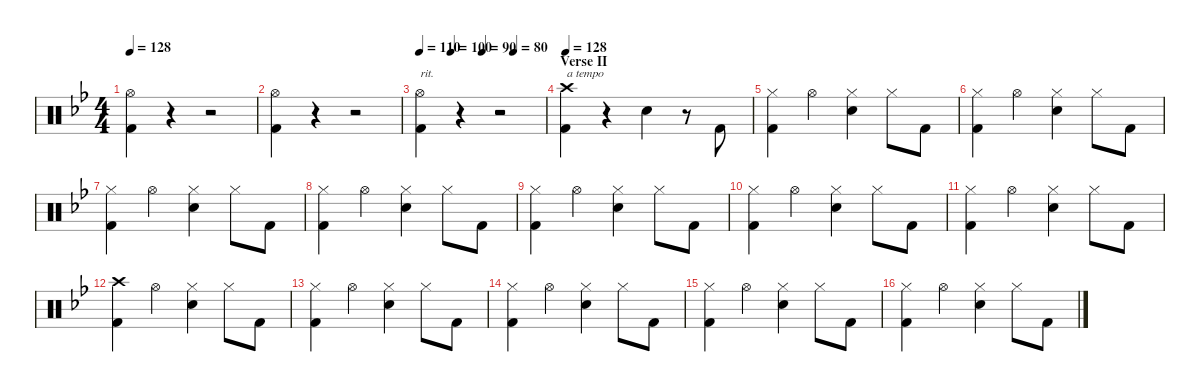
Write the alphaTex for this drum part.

\defaultSystemsLayout 4
\hideDynamics
\bracketExtendMode nobrackets
\singleTrackTrackNamePolicy hidden
\multiTrackTrackNamePolicy hidden
\firstSystemTrackNameMode fullname
\firstSystemTrackNameOrientation horizontal
\otherSystemsTrackNameOrientation horizontal
\track ("Drums" "drm.") {instrument percussion}
\staff {score}
\articulation defaults
\ts (4 4)
\tempo 128
\clef neutral
\ks bb
("Hi-Hat (open)"{acc forcenatural} "Kick (hit) 2"{acc forcenatural}).4{dy f beam Down} r.4{beam Down} r.2{beam Down} |
("Hi-Hat (open)"{acc forcenatural} "Kick (hit) 2"{acc forcenatural}).4{beam Down} r.4{beam Down} r.2{beam Down} |
\tempo 110
\tempo (100 0.25)
\tempo (90 0.5)
\tempo (80 0.75)
("Hi-Hat (open)"{acc forcenatural} "Kick (hit) 2"{acc forcenatural}).4{txt "rit." beam Down} r.4{beam Down} r.2{beam Down} |
\section ("" "Verse II")
\tempo 128
("Crash high (hit)"{acc forcenatural} "Kick (hit) 2"{acc forcenatural}).4{txt "a tempo" beam Down} r.4{beam Down} "Snare (hit) 2"{acc forcenatural}.4{beam Down} r.8{beam Down} "Kick (hit) 2"{acc forcenatural}.8{beam Up} |
("Hi-Hat (closed)"{acc forcenatural} "Kick (hit) 2"{acc forcenatural}).4{beam Down} "Hi-Hat (open)"{acc forcenatural}.4{beam Down} ("Hi-Hat (closed)"{acc forcenatural} "Snare (hit) 2"{acc forcenatural}).4{beam Down} "Hi-Hat (closed)"{acc forcenatural}.8{beam Down} "Kick (hit) 2"{acc forcenatural}.8{beam Down} |
("Hi-Hat (closed)"{acc forcenatural} "Kick (hit) 2"{acc forcenatural}).4{beam Down} "Hi-Hat (open)"{acc forcenatural}.4{beam Down} ("Hi-Hat (closed)"{acc forcenatural} "Snare (hit) 2"{acc forcenatural}).4{beam Down} "Hi-Hat (closed)"{acc forcenatural}.8{beam Down} "Kick (hit) 2"{acc forcenatural}.8{beam Down} |
("Hi-Hat (closed)"{acc forcenatural} "Kick (hit) 2"{acc forcenatural}).4{beam Down} "Hi-Hat (open)"{acc forcenatural}.4{beam Down} ("Hi-Hat (closed)"{acc forcenatural} "Snare (hit) 2"{acc forcenatural}).4{beam Down} "Hi-Hat (closed)"{acc forcenatural}.8{beam Down} "Kick (hit) 2"{acc forcenatural}.8{beam Down} |
("Hi-Hat (closed)"{acc forcenatural} "Kick (hit) 2"{acc forcenatural}).4{beam Down} "Hi-Hat (open)"{acc forcenatural}.4{beam Down} ("Hi-Hat (closed)"{acc forcenatural} "Snare (hit) 2"{acc forcenatural}).4{beam Down} "Hi-Hat (closed)"{acc forcenatural}.8{beam Down} "Kick (hit) 2"{acc forcenatural}.8{beam Down} |
("Hi-Hat (closed)"{acc forcenatural} "Kick (hit) 2"{acc forcenatural}).4{beam Down} "Hi-Hat (open)"{acc forcenatural}.4{beam Down} ("Hi-Hat (closed)"{acc forcenatural} "Snare (hit) 2"{acc forcenatural}).4{beam Down} "Hi-Hat (closed)"{acc forcenatural}.8{beam Down} "Kick (hit) 2"{acc forcenatural}.8{beam Down} |
("Hi-Hat (closed)"{acc forcenatural} "Kick (hit) 2"{acc forcenatural}).4{beam Down} "Hi-Hat (open)"{acc forcenatural}.4{beam Down} ("Hi-Hat (closed)"{acc forcenatural} "Snare (hit) 2"{acc forcenatural}).4{beam Down} "Hi-Hat (closed)"{acc forcenatural}.8{beam Down} "Kick (hit) 2"{acc forcenatural}.8{beam Down} |
("Hi-Hat (closed)"{acc forcenatural} "Kick (hit) 2"{acc forcenatural}).4{beam Down} "Hi-Hat (open)"{acc forcenatural}.4{beam Down} ("Hi-Hat (closed)"{acc forcenatural} "Snare (hit) 2"{acc forcenatural}).4{beam Down} "Hi-Hat (closed)"{acc forcenatural}.8{beam Down} "Kick (hit) 2"{acc forcenatural}.8{beam Down} |
("Crash high (hit)"{acc forcenatural} "Kick (hit) 2"{acc forcenatural}).4{beam Down} "Hi-Hat (open)"{acc forcenatural}.4{beam Down} ("Hi-Hat (closed)"{acc forcenatural} "Snare (hit) 2"{acc forcenatural}).4{beam Down} "Hi-Hat (closed)"{acc forcenatural}.8{beam Down} "Kick (hit) 2"{acc forcenatural}.8{beam Down} |
("Hi-Hat (closed)"{acc forcenatural} "Kick (hit) 2"{acc forcenatural}).4{beam Down} "Hi-Hat (open)"{acc forcenatural}.4{beam Down} ("Hi-Hat (closed)"{acc forcenatural} "Snare (hit) 2"{acc forcenatural}).4{beam Down} "Hi-Hat (closed)"{acc forcenatural}.8{beam Down} "Kick (hit) 2"{acc forcenatural}.8{beam Down} |
("Hi-Hat (closed)"{acc forcenatural} "Kick (hit) 2"{acc forcenatural}).4{beam Down} "Hi-Hat (open)"{acc forcenatural}.4{beam Down} ("Hi-Hat (closed)"{acc forcenatural} "Snare (hit) 2"{acc forcenatural}).4{beam Down} "Hi-Hat (closed)"{acc forcenatural}.8{beam Down} "Kick (hit) 2"{acc forcenatural}.8{beam Down} |
("Hi-Hat (closed)"{acc forcenatural} "Kick (hit) 2"{acc forcenatural}).4{beam Down} "Hi-Hat (open)"{acc forcenatural}.4{beam Down} ("Hi-Hat (closed)"{acc forcenatural} "Snare (hit) 2"{acc forcenatural}).4{beam Down} "Hi-Hat (closed)"{acc forcenatural}.8{beam Down} "Kick (hit) 2"{acc forcenatural}.8{beam Down} |
("Hi-Hat (closed)"{acc forcenatural} "Kick (hit) 2"{acc forcenatural}).4{beam Down} "Hi-Hat (open)"{acc forcenatural}.4{beam Down} ("Hi-Hat (closed)"{acc forcenatural} "Snare (hit) 2"{acc forcenatural}).4{beam Down} "Hi-Hat (closed)"{acc forcenatural}.8{beam Down} "Kick (hit) 2"{acc forcenatural}.8{beam Down}
